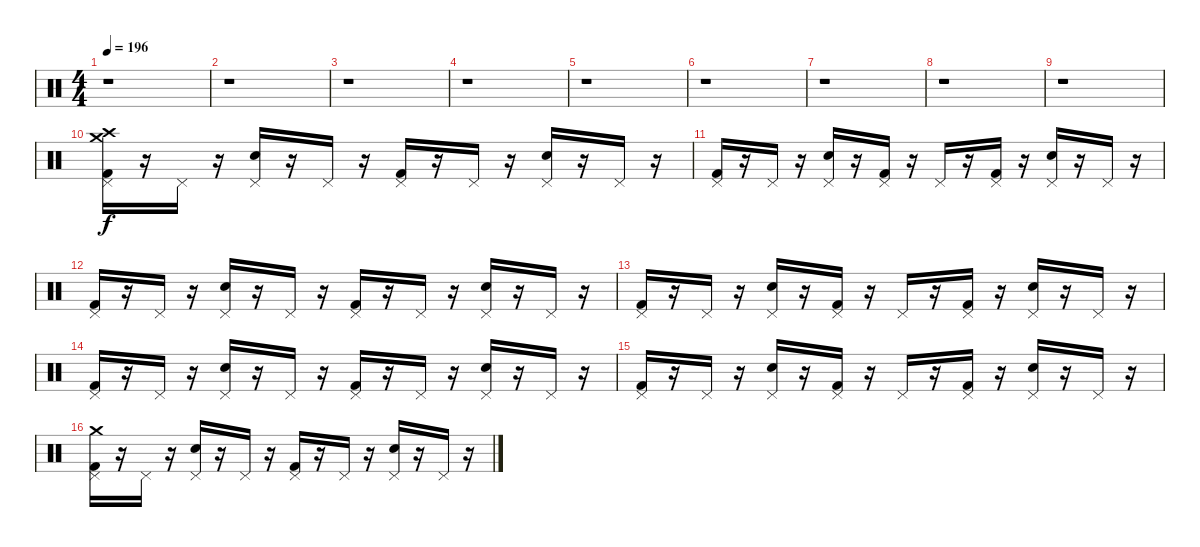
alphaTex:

\track "" {instrument percussion}
\staff {score}
\articulation defaults
\ts (4 4)
\tempo 196
\clef neutral
\ks c
r.1{dy f} |
r.1 |
r.1 |
r.1 |
r.1 |
r.1 |
r.1 |
r.1 |
r.1 |
("Crash medium (hit)" "Crash high (hit)" "Pedal Hi-Hat (hit)" "Kick (hit) 2").16 r.16 "Pedal Hi-Hat (hit)".16 r.16 ("Pedal Hi-Hat (hit)" "Electric Snare (hit)").16 r.16 "Pedal Hi-Hat (hit)".16 r.16 ("Pedal Hi-Hat (hit)" "Kick (hit) 2").16 r.16 "Pedal Hi-Hat (hit)".16 r.16 ("Pedal Hi-Hat (hit)" "Electric Snare (hit)").16 r.16 "Pedal Hi-Hat (hit)".16 r.16 |
("Pedal Hi-Hat (hit)" "Kick (hit) 2").16 r.16 "Pedal Hi-Hat (hit)".16 r.16 ("Pedal Hi-Hat (hit)" "Electric Snare (hit)").16 r.16 ("Pedal Hi-Hat (hit)" "Kick (hit) 2").16 r.16 "Pedal Hi-Hat (hit)".16 r.16 ("Pedal Hi-Hat (hit)" "Kick (hit) 2").16 r.16 ("Pedal Hi-Hat (hit)" "Electric Snare (hit)").16 r.16 "Pedal Hi-Hat (hit)".16 r.16 |
("Pedal Hi-Hat (hit)" "Kick (hit) 2").16 r.16 "Pedal Hi-Hat (hit)".16 r.16 ("Pedal Hi-Hat (hit)" "Electric Snare (hit)").16 r.16 "Pedal Hi-Hat (hit)".16 r.16 ("Pedal Hi-Hat (hit)" "Kick (hit) 2").16 r.16 "Pedal Hi-Hat (hit)".16 r.16 ("Pedal Hi-Hat (hit)" "Electric Snare (hit)").16 r.16 "Pedal Hi-Hat (hit)".16 r.16 |
("Pedal Hi-Hat (hit)" "Kick (hit) 2").16 r.16 "Pedal Hi-Hat (hit)".16 r.16 ("Pedal Hi-Hat (hit)" "Electric Snare (hit)").16 r.16 ("Pedal Hi-Hat (hit)" "Kick (hit) 2").16 r.16 "Pedal Hi-Hat (hit)".16 r.16 ("Pedal Hi-Hat (hit)" "Kick (hit) 2").16 r.16 ("Pedal Hi-Hat (hit)" "Electric Snare (hit)").16 r.16 "Pedal Hi-Hat (hit)".16 r.16 |
("Pedal Hi-Hat (hit)" "Kick (hit) 2").16 r.16 "Pedal Hi-Hat (hit)".16 r.16 ("Pedal Hi-Hat (hit)" "Electric Snare (hit)").16 r.16 "Pedal Hi-Hat (hit)".16 r.16 ("Pedal Hi-Hat (hit)" "Kick (hit) 2").16 r.16 "Pedal Hi-Hat (hit)".16 r.16 ("Pedal Hi-Hat (hit)" "Electric Snare (hit)").16 r.16 "Pedal Hi-Hat (hit)".16 r.16 |
("Pedal Hi-Hat (hit)" "Kick (hit) 2").16 r.16 "Pedal Hi-Hat (hit)".16 r.16 ("Pedal Hi-Hat (hit)" "Electric Snare (hit)").16 r.16 ("Pedal Hi-Hat (hit)" "Kick (hit) 2").16 r.16 "Pedal Hi-Hat (hit)".16 r.16 ("Pedal Hi-Hat (hit)" "Kick (hit) 2").16 r.16 ("Pedal Hi-Hat (hit)" "Electric Snare (hit)").16 r.16 "Pedal Hi-Hat (hit)".16 r.16 |
("Crash medium (hit)" "Pedal Hi-Hat (hit)" "Kick (hit) 2").16 r.16 "Pedal Hi-Hat (hit)".16 r.16 ("Pedal Hi-Hat (hit)" "Electric Snare (hit)").16 r.16 "Pedal Hi-Hat (hit)".16 r.16 ("Pedal Hi-Hat (hit)" "Kick (hit) 2").16 r.16 "Pedal Hi-Hat (hit)".16 r.16 ("Pedal Hi-Hat (hit)" "Electric Snare (hit)").16 r.16 "Pedal Hi-Hat (hit)".16 r.16
